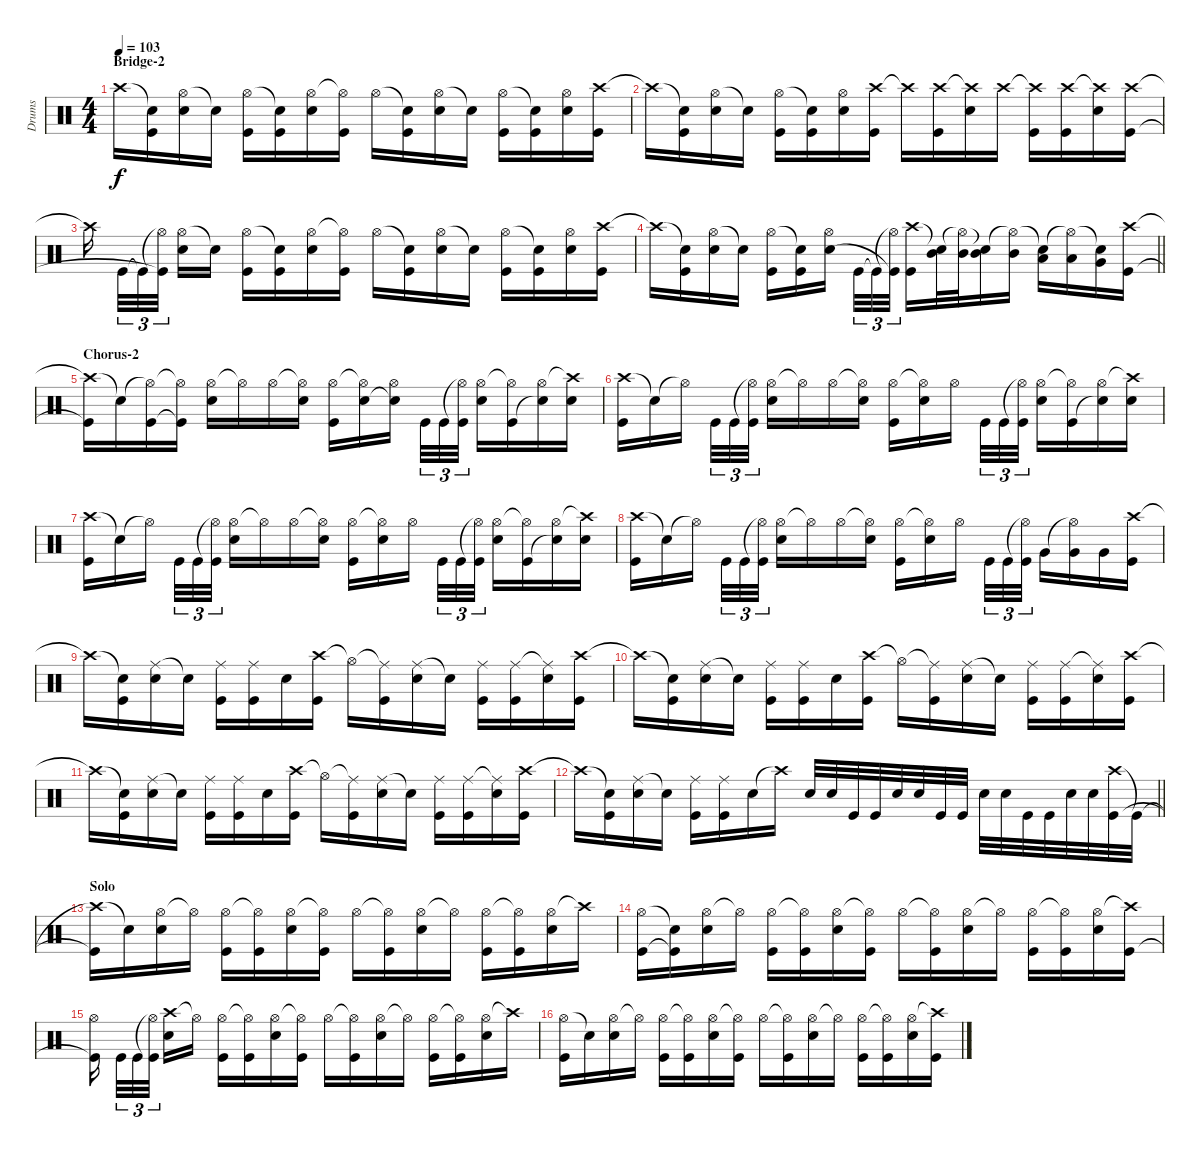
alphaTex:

\track ("Drums" "Drums") {instrument percussion}
\staff {score}
\articulation defaults
\ts (4 4)
\section ("" "Bridge-2")
\tempo 103
\clef neutral
\ks c "Crash high (hit)"{t}.16{dy f}
("Snare (hit)"{t} "Kick (hit)").16 ("Hi-Hat (open)" "Electric Snare (hit)").16 "Snare (hit)"{t}.16 ("Hi-Hat (open)" "Kick (hit)").16 ("Snare (hit)"{t} "Kick (hit)").16 ("Hi-Hat (open)" "Electric Snare (hit)").16 ("Hi-Hat (open)"{t} "Kick (hit)").16 "Hi-Hat (open)".16 ("Snare (hit)"{t} "Kick (hit)").16 ("Hi-Hat (open)" "Electric Snare (hit)").16 "Snare (hit)"{t}.16 ("Hi-Hat (open)" "Kick (hit)").16 ("Snare (hit)"{t} "Kick (hit)").16 ("Hi-Hat (open)" "Electric Snare (hit)").16 ("Crash high (hit)" "Kick (hit)").16 |
"Crash high (hit)"{t}.16 ("Snare (hit)"{t} "Kick (hit)").16 ("Hi-Hat (open)" "Electric Snare (hit)").16 "Snare (hit)"{t}.16 ("Hi-Hat (open)" "Kick (hit)").16 ("Snare (hit)"{t} "Kick (hit)").16 ("Hi-Hat (open)" "Electric Snare (hit)").16 ("Crash high (hit)" "Kick (hit)").16 "Crash high (hit)"{t}.16 ("Crash high (hit)" "Kick (hit)").16 ("Crash high (hit)"{t} "Electric Snare (hit)").16 "Crash high (hit)".16 ("Crash high (hit)"{t} "Kick (hit)").16 ("Crash high (hit)" "Kick (hit)").16 ("Crash high (hit)"{t} "Electric Snare (hit)").16 ("Crash high (hit)" "Kick (hit)").16 |
"Crash high (hit)"{t}.16 "Kick (hit)".32{tu (3 2)} "Kick (hit)"{t}.32{tu (3 2)} ("Hi-Hat (open)"{t} "Kick (hit)"{t}).32{tu (3 2)} ("Hi-Hat (open)" "Electric Snare (hit)").16 "Snare (hit)"{t}.16 ("Hi-Hat (open)" "Kick (hit)").16 ("Snare (hit)"{t} "Kick (hit)").16 ("Hi-Hat (open)" "Electric Snare (hit)").16 ("Hi-Hat (open)"{t} "Kick (hit)").16 "Hi-Hat (open)".16 ("Snare (hit)"{t} "Kick (hit)").16 ("Hi-Hat (open)" "Electric Snare (hit)").16 "Snare (hit)"{t}.16 ("Hi-Hat (open)" "Kick (hit)").16 ("Snare (hit)"{t} "Kick (hit)").16 ("Hi-Hat (open)" "Electric Snare (hit)").16 ("Crash high (hit)" "Kick (hit)").16 |
\barLineRight lightlight "Crash high (hit)"{t}.16
("Snare (hit)"{t} "Kick (hit)").16 ("Hi-Hat (open)" "Electric Snare (hit)").16 "Snare (hit)"{t}.16 ("Hi-Hat (open)" "Kick (hit)").16 ("Snare (hit)"{t} "Kick (hit)").16 ("Hi-Hat (open)" "Electric Snare (hit)").16 "Kick (hit)".32{tu (3 2)} "Kick (hit)"{t}.32{tu (3 2)} ("Hi-Hat (open)"{t} "Kick (hit)"{t}).32{tu (3 2)} ("Crash high (hit)" "Kick (hit)").16 ("Snare (hit)"{t} "Mid Tom (hit)").32 ("Hi-Hat (open)"{t} "Mid Tom (hit)").32 ("Snare (hit)"{t} "Mid Tom (hit)").16 ("Hi-Hat (open)"{t} "Mid Tom (hit)").16 ("Snare (hit)"{t} "Low Tom (hit)").16 ("Hi-Hat (open)"{t} "Low Tom (hit)").16 ("Snare (hit)"{t} "Very Low Tom (hit)").16 ("Crash high (hit)" "Kick (hit)").16 |
\section ("" "Chorus-2")
("Crash high (hit)"{t} "Kick (hit)"{t}).16 "Snare (hit)"{t}.16 ("Hi-Hat (open)"{t} "Kick (hit)").16 ("Hi-Hat (open)"{t} "Kick (hit)"{t}).16 ("Hi-Hat (open)" "Electric Snare (hit)").16 "Hi-Hat (open)"{t}.16 "Hi-Hat (open)".16 ("Hi-Hat (open)"{t} "Electric Snare (hit)").16 ("Hi-Hat (open)" "Kick (hit)").16 ("Hi-Hat (open)"{t} "Electric Snare (hit)").16 ("Hi-Hat (open)" "Electric Snare (hit)"{t}).16 "Kick (hit)".32{tu (3 2)} "Kick (hit)".32{tu (3 2)} ("Hi-Hat (open)"{t} "Kick (hit)").32{tu (3 2)} ("Hi-Hat (open)" "Electric Snare (hit)").16 ("Hi-Hat (open)"{t} "Kick (hit)").16 ("Hi-Hat (open)" "Electric Snare (hit)"{t}).16 ("Crash high (hit)"{t} "Electric Snare (hit)").16 |
("Crash high (hit)" "Kick (hit)").16 "Snare (hit)"{t}.16 "Hi-Hat (open)"{t}.16 "Kick (hit)".32{tu (3 2)} "Kick (hit)".32{tu (3 2)} ("Hi-Hat (open)"{t} "Kick (hit)").32{tu (3 2)} ("Hi-Hat (open)" "Electric Snare (hit)").16 "Hi-Hat (open)"{t}.16 "Hi-Hat (open)".16 ("Hi-Hat (open)"{t} "Electric Snare (hit)").16 ("Hi-Hat (open)" "Kick (hit)").16 ("Hi-Hat (open)"{t} "Electric Snare (hit)").16 "Hi-Hat (open)".16 "Kick (hit)".32{tu (3 2)} "Kick (hit)".32{tu (3 2)} ("Hi-Hat (open)"{t} "Kick (hit)").32{tu (3 2)} ("Hi-Hat (open)" "Electric Snare (hit)").16 ("Hi-Hat (open)"{t} "Kick (hit)").16 ("Hi-Hat (open)" "Electric Snare (hit)"{t}).16 ("Crash high (hit)"{t} "Electric Snare (hit)").16 |
("Crash high (hit)" "Kick (hit)").16 "Snare (hit)"{t}.16 "Hi-Hat (open)"{t}.16 "Kick (hit)".32{tu (3 2)} "Kick (hit)".32{tu (3 2)} ("Hi-Hat (open)"{t} "Kick (hit)").32{tu (3 2)} ("Hi-Hat (open)" "Electric Snare (hit)").16 "Hi-Hat (open)"{t}.16 "Hi-Hat (open)".16 ("Hi-Hat (open)"{t} "Electric Snare (hit)").16 ("Hi-Hat (open)" "Kick (hit)").16 ("Hi-Hat (open)"{t} "Electric Snare (hit)").16 "Hi-Hat (open)".16 "Kick (hit)".32{tu (3 2)} "Kick (hit)".32{tu (3 2)} ("Hi-Hat (open)"{t} "Kick (hit)").32{tu (3 2)} ("Hi-Hat (open)" "Electric Snare (hit)").16 ("Hi-Hat (open)"{t} "Kick (hit)").16 ("Hi-Hat (open)" "Electric Snare (hit)"{t}).16 ("Crash high (hit)"{t} "Electric Snare (hit)").16 |
("Crash high (hit)" "Kick (hit)").16 "Snare (hit)"{t}.16 "Hi-Hat (open)"{t}.16 "Kick (hit)".32{tu (3 2)} "Kick (hit)".32{tu (3 2)} ("Hi-Hat (open)"{t} "Kick (hit)").32{tu (3 2)} ("Hi-Hat (open)" "Electric Snare (hit)").16 "Hi-Hat (open)"{t}.16 "Hi-Hat (open)".16 ("Hi-Hat (open)"{t} "Electric Snare (hit)").16 ("Hi-Hat (open)" "Kick (hit)").16 ("Hi-Hat (open)"{t} "Electric Snare (hit)").16 "Hi-Hat (open)".16 "Kick (hit)".32{tu (3 2)} "Kick (hit)".32{tu (3 2)} ("Hi-Hat (open)"{t} "Kick (hit)").32{tu (3 2)} "Very Low Tom (hit)".16 ("Hi-Hat (open)"{t} "Very Low Tom (hit)").16 "Very Low Tom (hit)".16 ("Crash high (hit)" "Kick (hit)").16 |
"Crash high (hit)"{t}.16 ("Snare (hit)"{t} "Kick (hit)").16 ("Ride (middle)" "Electric Snare (hit)").16 "Snare (hit)"{t}.16 ("Ride (middle)" "Kick (hit)").16 ("Ride (middle)" "Kick (hit)").16 "Electric Snare (hit)".16 ("Crash high (hit)" "Kick (hit)").16 "Hi-Hat (open)"{t}.16 ("Ride (middle)"{t} "Kick (hit)").16 ("Ride (middle)" "Electric Snare (hit)").16 "Snare (hit)"{t}.16 ("Ride (middle)" "Kick (hit)").16 ("Ride (middle)" "Kick (hit)").16 ("Ride (middle)"{t} "Electric Snare (hit)").16 ("Crash high (hit)" "Kick (hit)").16 |
"Crash high (hit)"{t}.16 ("Snare (hit)"{t} "Kick (hit)").16 ("Ride (middle)" "Electric Snare (hit)").16 "Snare (hit)"{t}.16 ("Ride (middle)" "Kick (hit)").16 ("Ride (middle)" "Kick (hit)").16 "Electric Snare (hit)".16 ("Crash high (hit)" "Kick (hit)").16 "Hi-Hat (open)"{t}.16 ("Ride (middle)"{t} "Kick (hit)").16 ("Ride (middle)" "Electric Snare (hit)").16 "Snare (hit)"{t}.16 ("Ride (middle)" "Kick (hit)").16 ("Ride (middle)" "Kick (hit)").16 ("Ride (middle)"{t} "Electric Snare (hit)").16 ("Crash high (hit)" "Kick (hit)").16 |
"Crash high (hit)"{t}.16 ("Snare (hit)"{t} "Kick (hit)").16 ("Ride (middle)" "Electric Snare (hit)").16 "Snare (hit)"{t}.16 ("Ride (middle)" "Kick (hit)").16 ("Ride (middle)" "Kick (hit)").16 "Electric Snare (hit)".16 ("Crash high (hit)" "Kick (hit)").16 "Hi-Hat (open)"{t}.16 ("Ride (middle)"{t} "Kick (hit)").16 ("Ride (middle)" "Electric Snare (hit)").16 "Snare (hit)"{t}.16 ("Ride (middle)" "Kick (hit)").16 ("Ride (middle)" "Kick (hit)").16 ("Ride (middle)"{t} "Electric Snare (hit)").16 ("Crash high (hit)" "Kick (hit)").16 |
\barLineRight lightlight "Crash high (hit)"{t}.16
("Snare (hit)"{t} "Kick (hit)").16 ("Ride (middle)" "Electric Snare (hit)").16 "Snare (hit)"{t}.16 ("Ride (middle)" "Kick (hit)").16 ("Ride (middle)" "Kick (hit)").16 "Electric Snare (hit)".16 "Crash high (hit)"{t}.16 "Electric Snare (hit)".32 "Electric Snare (hit)".32 "Kick (hit)".32 "Kick (hit)".32 "Electric Snare (hit)".32 "Electric Snare (hit)".32 "Kick (hit)".32 "Kick (hit)".32 "Electric Snare (hit)".32 "Electric Snare (hit)".32 "Kick (hit)".32 "Kick (hit)".32 "Electric Snare (hit)".32 "Electric Snare (hit)".32 ("Crash high (hit)" "Kick (hit)").32 "Kick (hit)"{t}.32 |
\section ("" "Solo")
("Crash high (hit)"{t} "Kick (hit)"{t}).16 "Snare (hit)"{t}.16 ("Hi-Hat (open)" "Electric Snare (hit)").16 "Hi-Hat (open)"{t}.16 ("Hi-Hat (open)" "Kick (hit)").16 ("Hi-Hat (open)"{t} "Kick (hit)").16 ("Hi-Hat (open)" "Electric Snare (hit)").16 ("Hi-Hat (open)"{t} "Kick (hit)").16 "Hi-Hat (open)".16 ("Hi-Hat (open)"{t} "Kick (hit)").16 ("Hi-Hat (open)" "Electric Snare (hit)").16 "Hi-Hat (open)"{t}.16 ("Hi-Hat (open)" "Kick (hit)").16 ("Hi-Hat (open)"{t} "Kick (hit)").16 ("Hi-Hat (open)" "Electric Snare (hit)").16 "Crash high (hit)"{t}.16 |
("Hi-Hat (open)" "Kick (hit)").16 ("Snare (hit)"{t} "Kick (hit)"{t}).16 ("Hi-Hat (open)" "Electric Snare (hit)").16 "Hi-Hat (open)"{t}.16 ("Hi-Hat (open)" "Kick (hit)").16 ("Hi-Hat (open)"{t} "Kick (hit)").16 ("Hi-Hat (open)" "Electric Snare (hit)").16 ("Hi-Hat (open)"{t} "Kick (hit)").16 "Hi-Hat (open)".16 ("Hi-Hat (open)"{t} "Kick (hit)").16 ("Hi-Hat (open)" "Electric Snare (hit)").16 "Hi-Hat (open)"{t}.16 ("Hi-Hat (open)" "Kick (hit)").16 ("Hi-Hat (open)"{t} "Kick (hit)").16 ("Hi-Hat (open)" "Electric Snare (hit)").16 ("Crash high (hit)"{t} "Kick (hit)").16 |
("Hi-Hat (open)" "Kick (hit)"{t}).16 "Kick (hit)".32{tu (3 2)} "Kick (hit)".32{tu (3 2)} ("Hi-Hat (open)"{t} "Kick (hit)").32{tu (3 2)} ("Crash high (hit)" "Electric Snare (hit)").16 "Hi-Hat (open)"{t}.16 ("Hi-Hat (open)" "Kick (hit)").16 ("Hi-Hat (open)"{t} "Kick (hit)").16 ("Hi-Hat (open)" "Electric Snare (hit)").16 ("Hi-Hat (open)"{t} "Kick (hit)").16 "Hi-Hat (open)".16 ("Hi-Hat (open)"{t} "Kick (hit)").16 ("Hi-Hat (open)" "Electric Snare (hit)").16 "Hi-Hat (open)"{t}.16 ("Hi-Hat (open)" "Kick (hit)").16 ("Hi-Hat (open)"{t} "Kick (hit)").16 ("Hi-Hat (open)" "Electric Snare (hit)").16 "Crash high (hit)"{t}.16 |
("Hi-Hat (open)" "Kick (hit)").16 "Snare (hit)"{t}.16 ("Hi-Hat (open)" "Electric Snare (hit)").16 "Hi-Hat (open)"{t}.16 ("Hi-Hat (open)" "Kick (hit)").16 ("Hi-Hat (open)"{t} "Kick (hit)").16 ("Hi-Hat (open)" "Electric Snare (hit)").16 ("Hi-Hat (open)"{t} "Kick (hit)").16 "Hi-Hat (open)".16 ("Hi-Hat (open)"{t} "Kick (hit)").16 ("Hi-Hat (open)" "Electric Snare (hit)").16 "Hi-Hat (open)"{t}.16 ("Hi-Hat (open)" "Kick (hit)").16 ("Hi-Hat (open)"{t} "Kick (hit)").16 ("Hi-Hat (open)" "Electric Snare (hit)").16 ("Crash high (hit)"{t} "Kick (hit)").16
